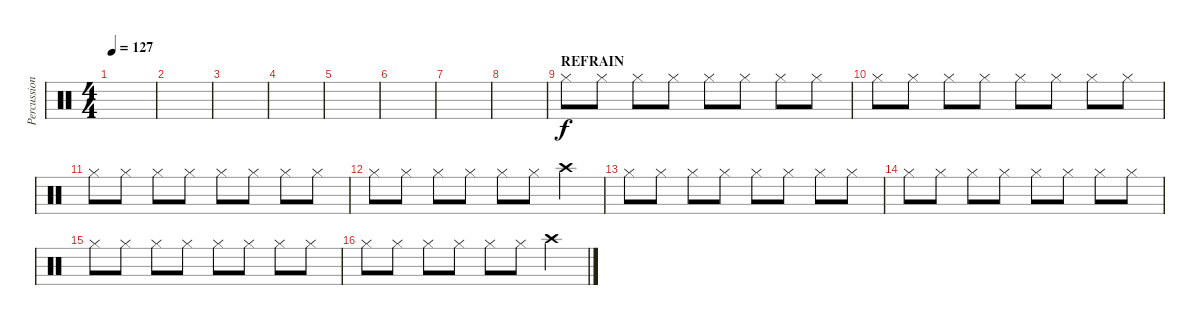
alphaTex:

\track ("Percussions" "Percussion") {instrument percussion}
\staff {score}
\articulation defaults
\ts (4 4)
\tempo 127
\clef neutral
\ks c
|
|
|
|
|
|
|
|
\section ("" "REFRAIN")
"Hi-Hat (closed)".8 "Hi-Hat (closed)".8 "Hi-Hat (closed)".8 "Hi-Hat (closed)".8 "Hi-Hat (closed)".8 "Hi-Hat (closed)".8 "Hi-Hat (closed)".8 "Hi-Hat (closed)".8 |
"Hi-Hat (closed)".8 "Hi-Hat (closed)".8 "Hi-Hat (closed)".8 "Hi-Hat (closed)".8 "Hi-Hat (closed)".8 "Hi-Hat (closed)".8 "Hi-Hat (closed)".8 "Hi-Hat (closed)".8 |
"Hi-Hat (closed)".8 "Hi-Hat (closed)".8 "Hi-Hat (closed)".8 "Hi-Hat (closed)".8 "Hi-Hat (closed)".8 "Hi-Hat (closed)".8 "Hi-Hat (closed)".8 "Hi-Hat (closed)".8 |
"Hi-Hat (closed)".8 "Hi-Hat (closed)".8 "Hi-Hat (closed)".8 "Hi-Hat (closed)".8 "Hi-Hat (closed)".8 "Hi-Hat (closed)".8 "Crash high (hit)".4 |
"Hi-Hat (closed)".8 "Hi-Hat (closed)".8 "Hi-Hat (closed)".8 "Hi-Hat (closed)".8 "Hi-Hat (closed)".8 "Hi-Hat (closed)".8 "Hi-Hat (closed)".8 "Hi-Hat (closed)".8 |
"Hi-Hat (closed)".8 "Hi-Hat (closed)".8 "Hi-Hat (closed)".8 "Hi-Hat (closed)".8 "Hi-Hat (closed)".8 "Hi-Hat (closed)".8 "Hi-Hat (closed)".8 "Hi-Hat (closed)".8 |
"Hi-Hat (closed)".8 "Hi-Hat (closed)".8 "Hi-Hat (closed)".8 "Hi-Hat (closed)".8 "Hi-Hat (closed)".8 "Hi-Hat (closed)".8 "Hi-Hat (closed)".8 "Hi-Hat (closed)".8 |
"Hi-Hat (closed)".8 "Hi-Hat (closed)".8 "Hi-Hat (closed)".8 "Hi-Hat (closed)".8 "Hi-Hat (closed)".8 "Hi-Hat (closed)".8 "Crash high (hit)".4
